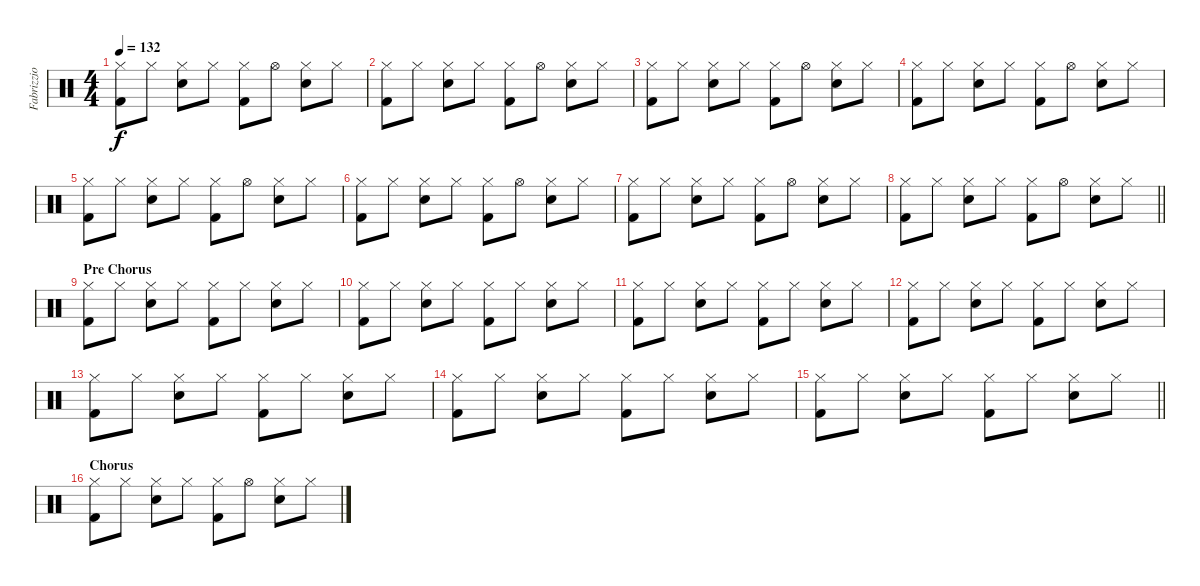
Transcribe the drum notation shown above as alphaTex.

\track ("Fabrizzio" "Fabrizzio") {instrument percussion}
\staff {score}
\articulation defaults
\ts (4 4)
\tempo 132
\clef neutral
\ks c
("Hi-Hat (closed)" "Kick (hit) 2").8{dy f} "Hi-Hat (closed)".8 ("Hi-Hat (closed)" "Snare (hit) 2").8 "Hi-Hat (closed)".8 ("Hi-Hat (closed)" "Kick (hit) 2").8 "Hi-Hat (open)".8 ("Hi-Hat (closed)" "Snare (hit) 2").8 "Hi-Hat (closed)".8 |
("Hi-Hat (closed)" "Kick (hit) 2").8 "Hi-Hat (closed)".8 ("Hi-Hat (closed)" "Snare (hit) 2").8 "Hi-Hat (closed)".8 ("Hi-Hat (closed)" "Kick (hit) 2").8 "Hi-Hat (open)".8 ("Hi-Hat (closed)" "Snare (hit) 2").8 "Hi-Hat (closed)".8 |
("Hi-Hat (closed)" "Kick (hit) 2").8 "Hi-Hat (closed)".8 ("Hi-Hat (closed)" "Snare (hit) 2").8 "Hi-Hat (closed)".8 ("Hi-Hat (closed)" "Kick (hit) 2").8 "Hi-Hat (open)".8 ("Hi-Hat (closed)" "Snare (hit) 2").8 "Hi-Hat (closed)".8 |
("Hi-Hat (closed)" "Kick (hit) 2").8 "Hi-Hat (closed)".8 ("Hi-Hat (closed)" "Snare (hit) 2").8 "Hi-Hat (closed)".8 ("Hi-Hat (closed)" "Kick (hit) 2").8 "Hi-Hat (open)".8 ("Hi-Hat (closed)" "Snare (hit) 2").8 "Hi-Hat (closed)".8 |
("Hi-Hat (closed)" "Kick (hit) 2").8 "Hi-Hat (closed)".8 ("Hi-Hat (closed)" "Snare (hit) 2").8 "Hi-Hat (closed)".8 ("Hi-Hat (closed)" "Kick (hit) 2").8 "Hi-Hat (open)".8 ("Hi-Hat (closed)" "Snare (hit) 2").8 "Hi-Hat (closed)".8 |
("Hi-Hat (closed)" "Kick (hit) 2").8 "Hi-Hat (closed)".8 ("Hi-Hat (closed)" "Snare (hit) 2").8 "Hi-Hat (closed)".8 ("Hi-Hat (closed)" "Kick (hit) 2").8 "Hi-Hat (open)".8 ("Hi-Hat (closed)" "Snare (hit) 2").8 "Hi-Hat (closed)".8 |
("Hi-Hat (closed)" "Kick (hit) 2").8 "Hi-Hat (closed)".8 ("Hi-Hat (closed)" "Snare (hit) 2").8 "Hi-Hat (closed)".8 ("Hi-Hat (closed)" "Kick (hit) 2").8 "Hi-Hat (open)".8 ("Hi-Hat (closed)" "Snare (hit) 2").8 "Hi-Hat (closed)".8 |
\barLineRight lightlight
("Hi-Hat (closed)" "Kick (hit) 2").8 "Hi-Hat (closed)".8 ("Hi-Hat (closed)" "Snare (hit) 2").8 "Hi-Hat (closed)".8 ("Hi-Hat (closed)" "Kick (hit) 2").8 "Hi-Hat (open)".8 ("Hi-Hat (closed)" "Snare (hit) 2").8 "Hi-Hat (closed)".8 |
\section ("" "Pre Chorus")
("Hi-Hat (closed)" "Kick (hit) 2").8 "Hi-Hat (closed)".8 ("Hi-Hat (closed)" "Snare (hit) 2").8 "Hi-Hat (closed)".8 ("Hi-Hat (closed)" "Kick (hit) 2").8 "Hi-Hat (closed)".8 ("Hi-Hat (closed)" "Snare (hit) 2").8 "Hi-Hat (closed)".8 |
("Hi-Hat (closed)" "Kick (hit) 2").8 "Hi-Hat (closed)".8 ("Hi-Hat (closed)" "Snare (hit) 2").8 "Hi-Hat (closed)".8 ("Hi-Hat (closed)" "Kick (hit) 2").8 "Hi-Hat (closed)".8 ("Hi-Hat (closed)" "Snare (hit) 2").8 "Hi-Hat (closed)".8 |
("Hi-Hat (closed)" "Kick (hit) 2").8 "Hi-Hat (closed)".8 ("Hi-Hat (closed)" "Snare (hit) 2").8 "Hi-Hat (closed)".8 ("Hi-Hat (closed)" "Kick (hit) 2").8 "Hi-Hat (closed)".8 ("Hi-Hat (closed)" "Snare (hit) 2").8 "Hi-Hat (closed)".8 |
("Hi-Hat (closed)" "Kick (hit) 2").8 "Hi-Hat (closed)".8 ("Hi-Hat (closed)" "Snare (hit) 2").8 "Hi-Hat (closed)".8 ("Hi-Hat (closed)" "Kick (hit) 2").8 "Hi-Hat (closed)".8 ("Hi-Hat (closed)" "Snare (hit) 2").8 "Hi-Hat (closed)".8 |
("Hi-Hat (closed)" "Kick (hit) 2").8 "Hi-Hat (closed)".8 ("Hi-Hat (closed)" "Snare (hit) 2").8 "Hi-Hat (closed)".8 ("Hi-Hat (closed)" "Kick (hit) 2").8 "Hi-Hat (closed)".8 ("Hi-Hat (closed)" "Snare (hit) 2").8 "Hi-Hat (closed)".8 |
("Hi-Hat (closed)" "Kick (hit) 2").8 "Hi-Hat (closed)".8 ("Hi-Hat (closed)" "Snare (hit) 2").8 "Hi-Hat (closed)".8 ("Hi-Hat (closed)" "Kick (hit) 2").8 "Hi-Hat (closed)".8 ("Hi-Hat (closed)" "Snare (hit) 2").8 "Hi-Hat (closed)".8 |
\barLineRight lightlight
("Hi-Hat (closed)" "Kick (hit) 2").8 "Hi-Hat (closed)".8 ("Hi-Hat (closed)" "Snare (hit) 2").8 "Hi-Hat (closed)".8 ("Hi-Hat (closed)" "Kick (hit) 2").8 "Hi-Hat (closed)".8 ("Hi-Hat (closed)" "Snare (hit) 2").8 "Hi-Hat (closed)".8 |
\section ("" "Chorus")
("Hi-Hat (closed)" "Kick (hit) 2").8 "Hi-Hat (closed)".8 ("Hi-Hat (closed)" "Snare (hit) 2").8 "Hi-Hat (closed)".8 ("Hi-Hat (closed)" "Kick (hit) 2").8 "Hi-Hat (open)".8 ("Hi-Hat (closed)" "Snare (hit) 2").8 "Hi-Hat (closed)".8
